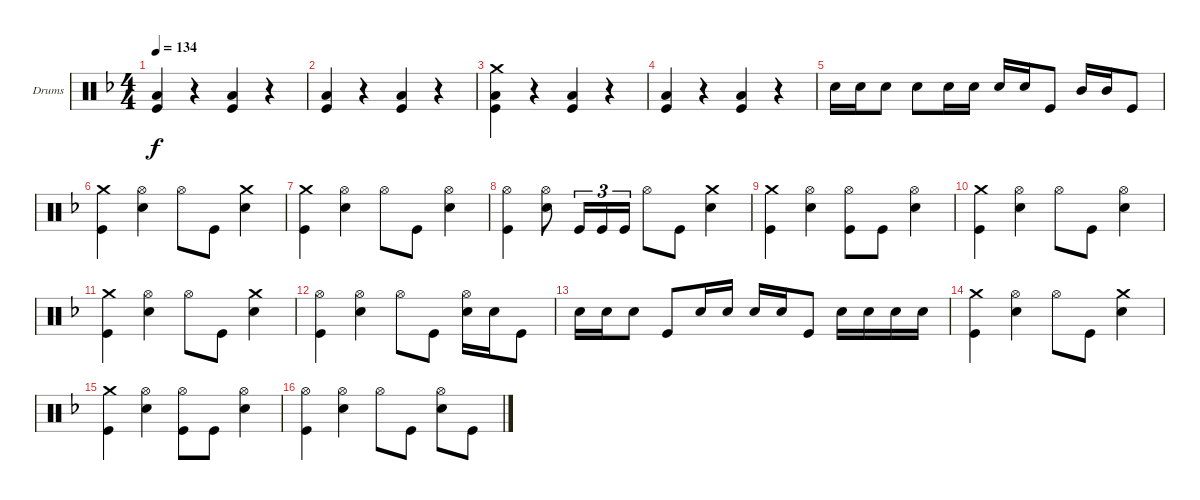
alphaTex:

\defaultSystemsLayout 4
\bracketExtendMode groupsimilarinstruments
\firstSystemTrackNameOrientation horizontal
\otherSystemsTrackNameOrientation horizontal
\track ("Carmine" "Drums") {instrument percussion}
\staff {score}
\articulation defaults
\ts (4 4)
\tempo 134
\clef neutral
\ks f
("Low Tom (hit)" "Kick (hit)").4{dy f} r.4 ("Low Tom (hit)" "Kick (hit)").4 r.4 |
("Low Tom (hit)" "Kick (hit)").4 r.4 ("Low Tom (hit)" "Kick (hit)").4 r.4 |
("Crash medium (hit)" "Low Tom (hit)" "Kick (hit)").4 r.4 ("Low Tom (hit)" "Kick (hit)").4 r.4 |
("Low Tom (hit)" "Kick (hit)").4 r.4 ("Low Tom (hit)" "Kick (hit)").4 r.4 |
"Snare (hit) 2".16 "Snare (hit) 2".16 "Snare (hit) 2".8 "Snare (hit) 2".8 "Snare (hit) 2".16 "Snare (hit) 2".16 "Snare (hit) 2".16 "Snare (hit) 2".16 "Kick (hit)".8 "Mid Tom (hit)".16 "Mid Tom (hit)".16 "Kick (hit)".8 |
("Crash medium (hit)" "Kick (hit)").4 ("Hi-Hat (open)" "Snare (hit) 2").4 "Hi-Hat (open)".8 "Kick (hit)".8 ("Crash medium (hit)" "Snare (hit) 2").4 |
("Crash medium (hit)" "Kick (hit)").4 ("Hi-Hat (open)" "Snare (hit) 2").4 "Hi-Hat (open)".8 "Kick (hit)".8 ("Hi-Hat (open)" "Snare (hit) 2").4 |
("Hi-Hat (open)" "Kick (hit)").4 ("Hi-Hat (open)" "Snare (hit) 2").8 "Kick (hit)".16{tu (3 2)} "Kick (hit)".16{tu (3 2)} "Kick (hit)".16{tu (3 2)} "Hi-Hat (open)".8 "Kick (hit)".8 ("Crash medium (hit)" "Snare (hit) 2").4 |
("Crash medium (hit)" "Kick (hit)").4 ("Hi-Hat (open)" "Snare (hit) 2").4 ("Hi-Hat (open)" "Kick (hit)").8 "Kick (hit)".8 ("Hi-Hat (open)" "Snare (hit) 2").4 |
("Crash medium (hit)" "Kick (hit)").4 ("Hi-Hat (open)" "Snare (hit) 2").4 "Hi-Hat (open)".8 "Kick (hit)".8 ("Hi-Hat (open)" "Snare (hit) 2").4 |
("Crash medium (hit)" "Kick (hit)").4 ("Hi-Hat (open)" "Snare (hit) 2").4 "Hi-Hat (open)".8 "Kick (hit)".8 ("Crash medium (hit)" "Snare (hit) 2").4 |
("Hi-Hat (open)" "Kick (hit)").4 ("Hi-Hat (open)" "Snare (hit) 2").4 "Hi-Hat (open)".8 "Kick (hit)".8 ("Hi-Hat (open)" "Snare (hit) 2").16 "Snare (hit) 2".16 "Kick (hit)".8 |
"Snare (hit) 2".16 "Snare (hit) 2".16 "Snare (hit) 2".8 "Kick (hit)".8 "Snare (hit) 2".16 "Snare (hit) 2".16 "Snare (hit) 2".16 "Snare (hit) 2".16 "Kick (hit)".8 "Snare (hit) 2".16 "Snare (hit) 2".16 "Snare (hit) 2".16 "Snare (hit) 2".16 |
("Crash medium (hit)" "Kick (hit)").4 ("Hi-Hat (open)" "Snare (hit) 2").4 "Hi-Hat (open)".8 "Kick (hit)".8 ("Crash medium (hit)" "Snare (hit) 2").4 |
("Crash medium (hit)" "Kick (hit)").4 ("Hi-Hat (open)" "Snare (hit) 2").4 ("Hi-Hat (open)" "Kick (hit)").8 "Kick (hit)".8 ("Hi-Hat (open)" "Snare (hit) 2").4 |
("Hi-Hat (open)" "Kick (hit)").4 ("Hi-Hat (open)" "Snare (hit) 2").4 "Hi-Hat (open)".8 "Kick (hit)".8 ("Hi-Hat (open)" "Snare (hit) 2").8 "Kick (hit)".8
